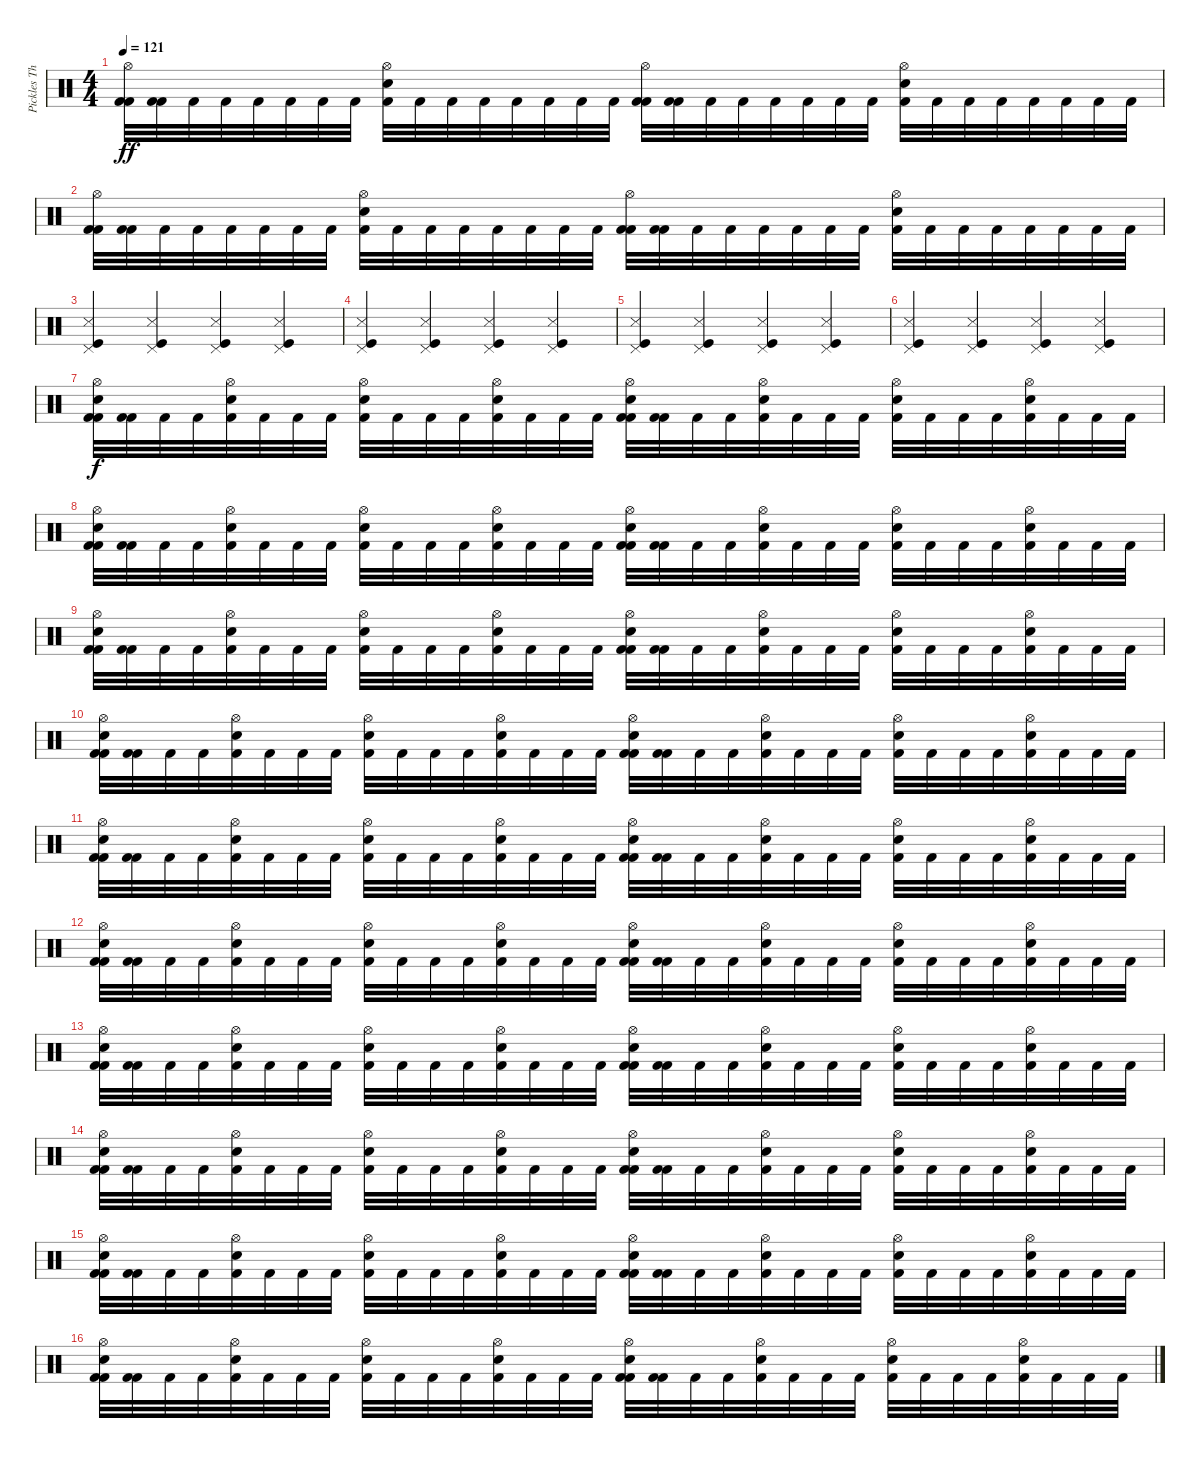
\track ("Pickles The Drummer" "Pickles Th") {instrument percussion bank 4}
\staff {score}
\articulation defaults
\ts (4 4)
\tempo 121
\clef neutral
\ks c
("Hi-Hat (open)" "Kick (hit) 2" "Kick (hit) 2").32{dy ff} ("Kick (hit) 2" "Kick (hit) 2").32 "Kick (hit) 2".32 "Kick (hit) 2".32 "Kick (hit) 2".32 "Kick (hit) 2".32 "Kick (hit) 2".32 "Kick (hit) 2".32 ("Hi-Hat (open)" "Snare (hit) 2" "Kick (hit) 2").32 "Kick (hit) 2".32 "Kick (hit) 2".32 "Kick (hit) 2".32 "Kick (hit) 2".32 "Kick (hit) 2".32 "Kick (hit) 2".32 "Kick (hit) 2".32 ("Hi-Hat (open)" "Kick (hit) 2" "Kick (hit) 2").32 ("Kick (hit) 2" "Kick (hit) 2").32 "Kick (hit) 2".32 "Kick (hit) 2".32 "Kick (hit) 2".32 "Kick (hit) 2".32 "Kick (hit) 2".32 "Kick (hit) 2".32 ("Hi-Hat (open)" "Snare (hit) 2" "Kick (hit) 2").32 "Kick (hit) 2".32 "Kick (hit) 2".32 "Kick (hit) 2".32 "Kick (hit) 2".32 "Kick (hit) 2".32 "Kick (hit) 2".32 "Kick (hit) 2".32 |
("Hi-Hat (open)" "Kick (hit) 2" "Kick (hit) 2").32 ("Kick (hit) 2" "Kick (hit) 2").32 "Kick (hit) 2".32 "Kick (hit) 2".32 "Kick (hit) 2".32 "Kick (hit) 2".32 "Kick (hit) 2".32 "Kick (hit) 2".32 ("Hi-Hat (open)" "Snare (hit) 2" "Kick (hit) 2").32 "Kick (hit) 2".32 "Kick (hit) 2".32 "Kick (hit) 2".32 "Kick (hit) 2".32 "Kick (hit) 2".32 "Kick (hit) 2".32 "Kick (hit) 2".32 ("Hi-Hat (open)" "Kick (hit) 2" "Kick (hit) 2").32 ("Kick (hit) 2" "Kick (hit) 2").32 "Kick (hit) 2".32 "Kick (hit) 2".32 "Kick (hit) 2".32 "Kick (hit) 2".32 "Kick (hit) 2".32 "Kick (hit) 2".32 ("Hi-Hat (open)" "Snare (hit) 2" "Kick (hit) 2").32 "Kick (hit) 2".32 "Kick (hit) 2".32 "Kick (hit) 2".32 "Kick (hit) 2".32 "Kick (hit) 2".32 "Kick (hit) 2".32 "Kick (hit) 2".32 |
("Pedal Hi-Hat (hit)" "Snare (side stick) 3" "Kick (hit)").4 ("Pedal Hi-Hat (hit)" "Snare (side stick) 3" "Kick (hit)").4 ("Pedal Hi-Hat (hit)" "Snare (side stick) 3" "Kick (hit)").4 ("Pedal Hi-Hat (hit)" "Snare (side stick) 3" "Kick (hit)").4 |
("Pedal Hi-Hat (hit)" "Snare (side stick) 3" "Kick (hit)").4 ("Pedal Hi-Hat (hit)" "Snare (side stick) 3" "Kick (hit)").4 ("Pedal Hi-Hat (hit)" "Snare (side stick) 3" "Kick (hit)").4 ("Pedal Hi-Hat (hit)" "Snare (side stick) 3" "Kick (hit)").4 |
("Pedal Hi-Hat (hit)" "Snare (side stick) 3" "Kick (hit)").4 ("Pedal Hi-Hat (hit)" "Snare (side stick) 3" "Kick (hit)").4 ("Pedal Hi-Hat (hit)" "Snare (side stick) 3" "Kick (hit)").4 ("Pedal Hi-Hat (hit)" "Snare (side stick) 3" "Kick (hit)").4 |
("Pedal Hi-Hat (hit)" "Snare (side stick) 3" "Kick (hit)").4 ("Pedal Hi-Hat (hit)" "Snare (side stick) 3" "Kick (hit)").4 ("Pedal Hi-Hat (hit)" "Snare (side stick) 3" "Kick (hit)").4 ("Pedal Hi-Hat (hit)" "Snare (side stick) 3" "Kick (hit)").4 |
("Hi-Hat (open)" "Snare (hit) 2" "Kick (hit) 2" "Kick (hit) 2").32{dy f} ("Kick (hit) 2" "Kick (hit) 2").32 "Kick (hit) 2".32 "Kick (hit) 2".32 ("Hi-Hat (open)" "Snare (hit) 2" "Kick (hit) 2").32 "Kick (hit) 2".32 "Kick (hit) 2".32 "Kick (hit) 2".32 ("Hi-Hat (open)" "Snare (hit) 2" "Kick (hit) 2").32 "Kick (hit) 2".32 "Kick (hit) 2".32 "Kick (hit) 2".32 ("Hi-Hat (open)" "Snare (hit) 2" "Kick (hit) 2").32 "Kick (hit) 2".32 "Kick (hit) 2".32 "Kick (hit) 2".32 ("Hi-Hat (open)" "Snare (hit) 2" "Kick (hit) 2" "Kick (hit) 2").32 ("Kick (hit) 2" "Kick (hit) 2").32 "Kick (hit) 2".32 "Kick (hit) 2".32 ("Hi-Hat (open)" "Snare (hit) 2" "Kick (hit) 2").32 "Kick (hit) 2".32 "Kick (hit) 2".32 "Kick (hit) 2".32 ("Hi-Hat (open)" "Snare (hit) 2" "Kick (hit) 2").32 "Kick (hit) 2".32 "Kick (hit) 2".32 "Kick (hit) 2".32 ("Hi-Hat (open)" "Snare (hit) 2" "Kick (hit) 2").32 "Kick (hit) 2".32 "Kick (hit) 2".32 "Kick (hit) 2".32 |
("Hi-Hat (open)" "Snare (hit) 2" "Kick (hit) 2" "Kick (hit) 2").32 ("Kick (hit) 2" "Kick (hit) 2").32 "Kick (hit) 2".32 "Kick (hit) 2".32 ("Hi-Hat (open)" "Snare (hit) 2" "Kick (hit) 2").32 "Kick (hit) 2".32 "Kick (hit) 2".32 "Kick (hit) 2".32 ("Hi-Hat (open)" "Snare (hit) 2" "Kick (hit) 2").32 "Kick (hit) 2".32 "Kick (hit) 2".32 "Kick (hit) 2".32 ("Hi-Hat (open)" "Snare (hit) 2" "Kick (hit) 2").32 "Kick (hit) 2".32 "Kick (hit) 2".32 "Kick (hit) 2".32 ("Hi-Hat (open)" "Snare (hit) 2" "Kick (hit) 2" "Kick (hit) 2").32 ("Kick (hit) 2" "Kick (hit) 2").32 "Kick (hit) 2".32 "Kick (hit) 2".32 ("Hi-Hat (open)" "Snare (hit) 2" "Kick (hit) 2").32 "Kick (hit) 2".32 "Kick (hit) 2".32 "Kick (hit) 2".32 ("Hi-Hat (open)" "Snare (hit) 2" "Kick (hit) 2").32 "Kick (hit) 2".32 "Kick (hit) 2".32 "Kick (hit) 2".32 ("Hi-Hat (open)" "Snare (hit) 2" "Kick (hit) 2").32 "Kick (hit) 2".32 "Kick (hit) 2".32 "Kick (hit) 2".32 |
("Hi-Hat (open)" "Snare (hit) 2" "Kick (hit) 2" "Kick (hit) 2").32 ("Kick (hit) 2" "Kick (hit) 2").32 "Kick (hit) 2".32 "Kick (hit) 2".32 ("Hi-Hat (open)" "Snare (hit) 2" "Kick (hit) 2").32 "Kick (hit) 2".32 "Kick (hit) 2".32 "Kick (hit) 2".32 ("Hi-Hat (open)" "Snare (hit) 2" "Kick (hit) 2").32 "Kick (hit) 2".32 "Kick (hit) 2".32 "Kick (hit) 2".32 ("Hi-Hat (open)" "Snare (hit) 2" "Kick (hit) 2").32 "Kick (hit) 2".32 "Kick (hit) 2".32 "Kick (hit) 2".32 ("Hi-Hat (open)" "Snare (hit) 2" "Kick (hit) 2" "Kick (hit) 2").32 ("Kick (hit) 2" "Kick (hit) 2").32 "Kick (hit) 2".32 "Kick (hit) 2".32 ("Hi-Hat (open)" "Snare (hit) 2" "Kick (hit) 2").32 "Kick (hit) 2".32 "Kick (hit) 2".32 "Kick (hit) 2".32 ("Hi-Hat (open)" "Snare (hit) 2" "Kick (hit) 2").32 "Kick (hit) 2".32 "Kick (hit) 2".32 "Kick (hit) 2".32 ("Hi-Hat (open)" "Snare (hit) 2" "Kick (hit) 2").32 "Kick (hit) 2".32 "Kick (hit) 2".32 "Kick (hit) 2".32 |
("Hi-Hat (open)" "Snare (hit) 2" "Kick (hit) 2" "Kick (hit) 2").32 ("Kick (hit) 2" "Kick (hit) 2").32 "Kick (hit) 2".32 "Kick (hit) 2".32 ("Hi-Hat (open)" "Snare (hit) 2" "Kick (hit) 2").32 "Kick (hit) 2".32 "Kick (hit) 2".32 "Kick (hit) 2".32 ("Hi-Hat (open)" "Snare (hit) 2" "Kick (hit) 2").32 "Kick (hit) 2".32 "Kick (hit) 2".32 "Kick (hit) 2".32 ("Hi-Hat (open)" "Snare (hit) 2" "Kick (hit) 2").32 "Kick (hit) 2".32 "Kick (hit) 2".32 "Kick (hit) 2".32 ("Hi-Hat (open)" "Snare (hit) 2" "Kick (hit) 2" "Kick (hit) 2").32 ("Kick (hit) 2" "Kick (hit) 2").32 "Kick (hit) 2".32 "Kick (hit) 2".32 ("Hi-Hat (open)" "Snare (hit) 2" "Kick (hit) 2").32 "Kick (hit) 2".32 "Kick (hit) 2".32 "Kick (hit) 2".32 ("Hi-Hat (open)" "Snare (hit) 2" "Kick (hit) 2").32 "Kick (hit) 2".32 "Kick (hit) 2".32 "Kick (hit) 2".32 ("Hi-Hat (open)" "Snare (hit) 2" "Kick (hit) 2").32 "Kick (hit) 2".32 "Kick (hit) 2".32 "Kick (hit) 2".32 |
("Hi-Hat (open)" "Snare (hit) 2" "Kick (hit) 2" "Kick (hit) 2").32 ("Kick (hit) 2" "Kick (hit) 2").32 "Kick (hit) 2".32 "Kick (hit) 2".32 ("Hi-Hat (open)" "Snare (hit) 2" "Kick (hit) 2").32 "Kick (hit) 2".32 "Kick (hit) 2".32 "Kick (hit) 2".32 ("Hi-Hat (open)" "Snare (hit) 2" "Kick (hit) 2").32 "Kick (hit) 2".32 "Kick (hit) 2".32 "Kick (hit) 2".32 ("Hi-Hat (open)" "Snare (hit) 2" "Kick (hit) 2").32 "Kick (hit) 2".32 "Kick (hit) 2".32 "Kick (hit) 2".32 ("Hi-Hat (open)" "Snare (hit) 2" "Kick (hit) 2" "Kick (hit) 2").32 ("Kick (hit) 2" "Kick (hit) 2").32 "Kick (hit) 2".32 "Kick (hit) 2".32 ("Hi-Hat (open)" "Snare (hit) 2" "Kick (hit) 2").32 "Kick (hit) 2".32 "Kick (hit) 2".32 "Kick (hit) 2".32 ("Hi-Hat (open)" "Snare (hit) 2" "Kick (hit) 2").32 "Kick (hit) 2".32 "Kick (hit) 2".32 "Kick (hit) 2".32 ("Hi-Hat (open)" "Snare (hit) 2" "Kick (hit) 2").32 "Kick (hit) 2".32 "Kick (hit) 2".32 "Kick (hit) 2".32 |
("Hi-Hat (open)" "Snare (hit) 2" "Kick (hit) 2" "Kick (hit) 2").32 ("Kick (hit) 2" "Kick (hit) 2").32 "Kick (hit) 2".32 "Kick (hit) 2".32 ("Hi-Hat (open)" "Snare (hit) 2" "Kick (hit) 2").32 "Kick (hit) 2".32 "Kick (hit) 2".32 "Kick (hit) 2".32 ("Hi-Hat (open)" "Snare (hit) 2" "Kick (hit) 2").32 "Kick (hit) 2".32 "Kick (hit) 2".32 "Kick (hit) 2".32 ("Hi-Hat (open)" "Snare (hit) 2" "Kick (hit) 2").32 "Kick (hit) 2".32 "Kick (hit) 2".32 "Kick (hit) 2".32 ("Hi-Hat (open)" "Snare (hit) 2" "Kick (hit) 2" "Kick (hit) 2").32 ("Kick (hit) 2" "Kick (hit) 2").32 "Kick (hit) 2".32 "Kick (hit) 2".32 ("Hi-Hat (open)" "Snare (hit) 2" "Kick (hit) 2").32 "Kick (hit) 2".32 "Kick (hit) 2".32 "Kick (hit) 2".32 ("Hi-Hat (open)" "Snare (hit) 2" "Kick (hit) 2").32 "Kick (hit) 2".32 "Kick (hit) 2".32 "Kick (hit) 2".32 ("Hi-Hat (open)" "Snare (hit) 2" "Kick (hit) 2").32 "Kick (hit) 2".32 "Kick (hit) 2".32 "Kick (hit) 2".32 |
("Hi-Hat (open)" "Snare (hit) 2" "Kick (hit) 2" "Kick (hit) 2").32 ("Kick (hit) 2" "Kick (hit) 2").32 "Kick (hit) 2".32 "Kick (hit) 2".32 ("Hi-Hat (open)" "Snare (hit) 2" "Kick (hit) 2").32 "Kick (hit) 2".32 "Kick (hit) 2".32 "Kick (hit) 2".32 ("Hi-Hat (open)" "Snare (hit) 2" "Kick (hit) 2").32 "Kick (hit) 2".32 "Kick (hit) 2".32 "Kick (hit) 2".32 ("Hi-Hat (open)" "Snare (hit) 2" "Kick (hit) 2").32 "Kick (hit) 2".32 "Kick (hit) 2".32 "Kick (hit) 2".32 ("Hi-Hat (open)" "Snare (hit) 2" "Kick (hit) 2" "Kick (hit) 2").32 ("Kick (hit) 2" "Kick (hit) 2").32 "Kick (hit) 2".32 "Kick (hit) 2".32 ("Hi-Hat (open)" "Snare (hit) 2" "Kick (hit) 2").32 "Kick (hit) 2".32 "Kick (hit) 2".32 "Kick (hit) 2".32 ("Hi-Hat (open)" "Snare (hit) 2" "Kick (hit) 2").32 "Kick (hit) 2".32 "Kick (hit) 2".32 "Kick (hit) 2".32 ("Hi-Hat (open)" "Snare (hit) 2" "Kick (hit) 2").32 "Kick (hit) 2".32 "Kick (hit) 2".32 "Kick (hit) 2".32 |
("Hi-Hat (open)" "Snare (hit) 2" "Kick (hit) 2" "Kick (hit) 2").32 ("Kick (hit) 2" "Kick (hit) 2").32 "Kick (hit) 2".32 "Kick (hit) 2".32 ("Hi-Hat (open)" "Snare (hit) 2" "Kick (hit) 2").32 "Kick (hit) 2".32 "Kick (hit) 2".32 "Kick (hit) 2".32 ("Hi-Hat (open)" "Snare (hit) 2" "Kick (hit) 2").32 "Kick (hit) 2".32 "Kick (hit) 2".32 "Kick (hit) 2".32 ("Hi-Hat (open)" "Snare (hit) 2" "Kick (hit) 2").32 "Kick (hit) 2".32 "Kick (hit) 2".32 "Kick (hit) 2".32 ("Hi-Hat (open)" "Snare (hit) 2" "Kick (hit) 2" "Kick (hit) 2").32 ("Kick (hit) 2" "Kick (hit) 2").32 "Kick (hit) 2".32 "Kick (hit) 2".32 ("Hi-Hat (open)" "Snare (hit) 2" "Kick (hit) 2").32 "Kick (hit) 2".32 "Kick (hit) 2".32 "Kick (hit) 2".32 ("Hi-Hat (open)" "Snare (hit) 2" "Kick (hit) 2").32 "Kick (hit) 2".32 "Kick (hit) 2".32 "Kick (hit) 2".32 ("Hi-Hat (open)" "Snare (hit) 2" "Kick (hit) 2").32 "Kick (hit) 2".32 "Kick (hit) 2".32 "Kick (hit) 2".32 |
("Hi-Hat (open)" "Snare (hit) 2" "Kick (hit) 2" "Kick (hit) 2").32 ("Kick (hit) 2" "Kick (hit) 2").32 "Kick (hit) 2".32 "Kick (hit) 2".32 ("Hi-Hat (open)" "Snare (hit) 2" "Kick (hit) 2").32 "Kick (hit) 2".32 "Kick (hit) 2".32 "Kick (hit) 2".32 ("Hi-Hat (open)" "Snare (hit) 2" "Kick (hit) 2").32 "Kick (hit) 2".32 "Kick (hit) 2".32 "Kick (hit) 2".32 ("Hi-Hat (open)" "Snare (hit) 2" "Kick (hit) 2").32 "Kick (hit) 2".32 "Kick (hit) 2".32 "Kick (hit) 2".32 ("Hi-Hat (open)" "Snare (hit) 2" "Kick (hit) 2" "Kick (hit) 2").32 ("Kick (hit) 2" "Kick (hit) 2").32 "Kick (hit) 2".32 "Kick (hit) 2".32 ("Hi-Hat (open)" "Snare (hit) 2" "Kick (hit) 2").32 "Kick (hit) 2".32 "Kick (hit) 2".32 "Kick (hit) 2".32 ("Hi-Hat (open)" "Snare (hit) 2" "Kick (hit) 2").32 "Kick (hit) 2".32 "Kick (hit) 2".32 "Kick (hit) 2".32 ("Hi-Hat (open)" "Snare (hit) 2" "Kick (hit) 2").32 "Kick (hit) 2".32 "Kick (hit) 2".32 "Kick (hit) 2".32 |
("Hi-Hat (open)" "Snare (hit) 2" "Kick (hit) 2" "Kick (hit) 2").32 ("Kick (hit) 2" "Kick (hit) 2").32 "Kick (hit) 2".32 "Kick (hit) 2".32 ("Hi-Hat (open)" "Snare (hit) 2" "Kick (hit) 2").32 "Kick (hit) 2".32 "Kick (hit) 2".32 "Kick (hit) 2".32 ("Hi-Hat (open)" "Snare (hit) 2" "Kick (hit) 2").32 "Kick (hit) 2".32 "Kick (hit) 2".32 "Kick (hit) 2".32 ("Hi-Hat (open)" "Snare (hit) 2" "Kick (hit) 2").32 "Kick (hit) 2".32 "Kick (hit) 2".32 "Kick (hit) 2".32 ("Hi-Hat (open)" "Snare (hit) 2" "Kick (hit) 2" "Kick (hit) 2").32 ("Kick (hit) 2" "Kick (hit) 2").32 "Kick (hit) 2".32 "Kick (hit) 2".32 ("Hi-Hat (open)" "Snare (hit) 2" "Kick (hit) 2").32 "Kick (hit) 2".32 "Kick (hit) 2".32 "Kick (hit) 2".32 ("Hi-Hat (open)" "Snare (hit) 2" "Kick (hit) 2").32 "Kick (hit) 2".32 "Kick (hit) 2".32 "Kick (hit) 2".32 ("Hi-Hat (open)" "Snare (hit) 2" "Kick (hit) 2").32 "Kick (hit) 2".32 "Kick (hit) 2".32 "Kick (hit) 2".32
